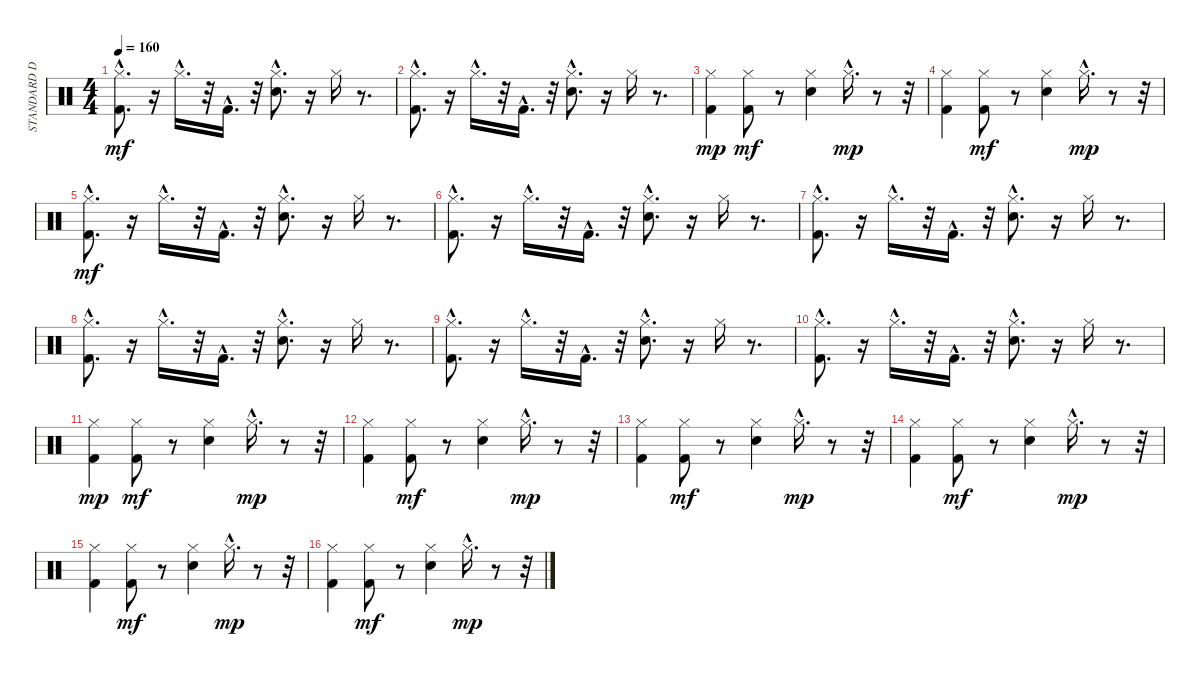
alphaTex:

\track ("STANDARD DRUMS" "STANDARD D") {instrument percussion}
\staff {score}
\articulation defaults
\ts (4 4)
\tempo 160
\clef neutral
\ks c
("Hi-Hat (closed)"{hac} "Kick (hit) 2"{hac}).8{d dy mf} r.16 "Hi-Hat (closed)"{hac}.16{d} r.32 "Kick (hit) 2"{hac}.16{d} r.32 ("Hi-Hat (closed)"{hac} "Electric Snare (hit)"{hac}).8{d} r.16 "Hi-Hat (closed)".16 r.8{d} |
("Hi-Hat (closed)"{hac} "Kick (hit) 2"{hac}).8{d} r.16 "Hi-Hat (closed)"{hac}.16{d} r.32 "Kick (hit) 2"{hac}.16{d} r.32 ("Hi-Hat (closed)"{hac} "Electric Snare (hit)"{hac}).8{d} r.16 "Hi-Hat (closed)".16 r.8{d} |
("Hi-Hat (closed)" "Kick (hit) 2").4{dy mp} ("Hi-Hat (closed)" "Kick (hit) 2").8{dy mf} r.8 ("Hi-Hat (closed)" "Electric Snare (hit)").4 "Hi-Hat (closed)"{hac}.16{d dy mp} r.8 r.32 |
("Hi-Hat (closed)" "Kick (hit) 2").4 ("Hi-Hat (closed)" "Kick (hit) 2").8{dy mf} r.8 ("Hi-Hat (closed)" "Electric Snare (hit)").4 "Hi-Hat (closed)"{hac}.16{d dy mp} r.8 r.32 |
("Hi-Hat (closed)"{hac} "Kick (hit) 2"{hac}).8{d dy mf} r.16 "Hi-Hat (closed)"{hac}.16{d} r.32 "Kick (hit) 2"{hac}.16{d} r.32 ("Hi-Hat (closed)"{hac} "Electric Snare (hit)"{hac}).8{d} r.16 "Hi-Hat (closed)".16 r.8{d} |
("Hi-Hat (closed)"{hac} "Kick (hit) 2"{hac}).8{d} r.16 "Hi-Hat (closed)"{hac}.16{d} r.32 "Kick (hit) 2"{hac}.16{d} r.32 ("Hi-Hat (closed)"{hac} "Electric Snare (hit)"{hac}).8{d} r.16 "Hi-Hat (closed)".16 r.8{d} |
("Hi-Hat (closed)"{hac} "Kick (hit) 2"{hac}).8{d} r.16 "Hi-Hat (closed)"{hac}.16{d} r.32 "Kick (hit) 2"{hac}.16{d} r.32 ("Hi-Hat (closed)"{hac} "Electric Snare (hit)"{hac}).8{d} r.16 "Hi-Hat (closed)".16 r.8{d} |
("Hi-Hat (closed)"{hac} "Kick (hit) 2"{hac}).8{d} r.16 "Hi-Hat (closed)"{hac}.16{d} r.32 "Kick (hit) 2"{hac}.16{d} r.32 ("Hi-Hat (closed)"{hac} "Electric Snare (hit)"{hac}).8{d} r.16 "Hi-Hat (closed)".16 r.8{d} |
("Hi-Hat (closed)"{hac} "Kick (hit) 2"{hac}).8{d} r.16 "Hi-Hat (closed)"{hac}.16{d} r.32 "Kick (hit) 2"{hac}.16{d} r.32 ("Hi-Hat (closed)"{hac} "Electric Snare (hit)"{hac}).8{d} r.16 "Hi-Hat (closed)".16 r.8{d} |
("Hi-Hat (closed)"{hac} "Kick (hit) 2"{hac}).8{d} r.16 "Hi-Hat (closed)"{hac}.16{d} r.32 "Kick (hit) 2"{hac}.16{d} r.32 ("Hi-Hat (closed)"{hac} "Electric Snare (hit)"{hac}).8{d} r.16 "Hi-Hat (closed)".16 r.8{d} |
("Hi-Hat (closed)" "Kick (hit) 2").4{dy mp} ("Hi-Hat (closed)" "Kick (hit) 2").8{dy mf} r.8 ("Hi-Hat (closed)" "Electric Snare (hit)").4 "Hi-Hat (closed)"{hac}.16{d dy mp} r.8 r.32 |
("Hi-Hat (closed)" "Kick (hit) 2").4 ("Hi-Hat (closed)" "Kick (hit) 2").8{dy mf} r.8 ("Hi-Hat (closed)" "Electric Snare (hit)").4 "Hi-Hat (closed)"{hac}.16{d dy mp} r.8 r.32 |
("Hi-Hat (closed)" "Kick (hit) 2").4 ("Hi-Hat (closed)" "Kick (hit) 2").8{dy mf} r.8 ("Hi-Hat (closed)" "Electric Snare (hit)").4 "Hi-Hat (closed)"{hac}.16{d dy mp} r.8 r.32 |
("Hi-Hat (closed)" "Kick (hit) 2").4 ("Hi-Hat (closed)" "Kick (hit) 2").8{dy mf} r.8 ("Hi-Hat (closed)" "Electric Snare (hit)").4 "Hi-Hat (closed)"{hac}.16{d dy mp} r.8 r.32 |
("Hi-Hat (closed)" "Kick (hit) 2").4 ("Hi-Hat (closed)" "Kick (hit) 2").8{dy mf} r.8 ("Hi-Hat (closed)" "Electric Snare (hit)").4 "Hi-Hat (closed)"{hac}.16{d dy mp} r.8 r.32 |
("Hi-Hat (closed)" "Kick (hit) 2").4 ("Hi-Hat (closed)" "Kick (hit) 2").8{dy mf} r.8 ("Hi-Hat (closed)" "Electric Snare (hit)").4 "Hi-Hat (closed)"{hac}.16{d dy mp} r.8 r.32
